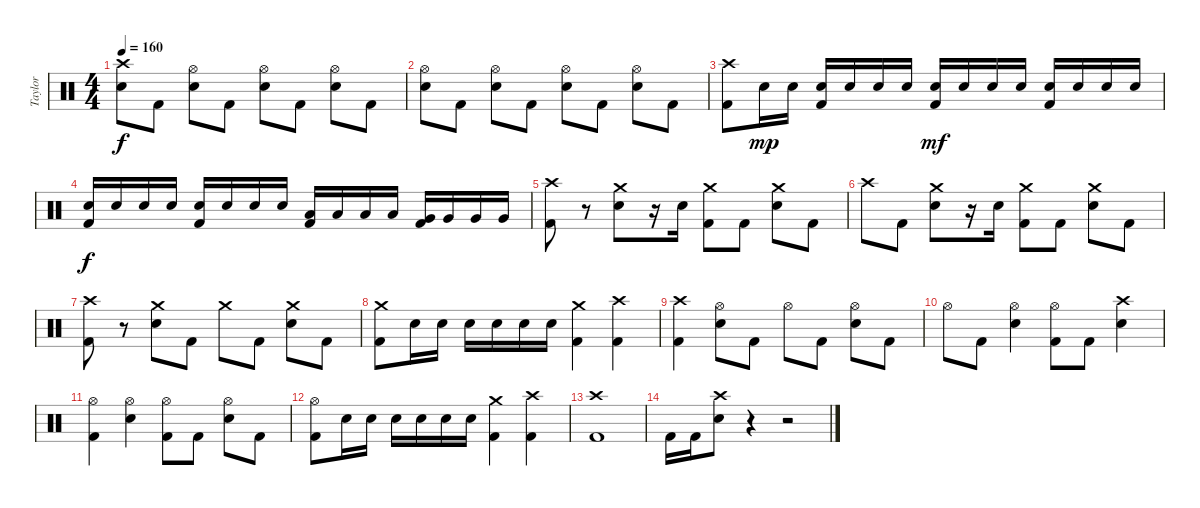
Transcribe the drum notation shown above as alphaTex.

\track ("Taylor" "Taylor") {instrument percussion}
\staff {score}
\articulation defaults
\ts (4 4)
\tempo 160
\clef neutral
\ks c
("Crash high (hit)" "Electric Snare (hit)").8{dy f} "Kick (hit) 2".8 ("Hi-Hat (open)" "Electric Snare (hit)").8 "Kick (hit) 2".8 ("Hi-Hat (open)" "Electric Snare (hit)").8 "Kick (hit) 2".8 ("Hi-Hat (open)" "Electric Snare (hit)").8 "Kick (hit) 2".8 |
("Hi-Hat (open)" "Electric Snare (hit)").8 "Kick (hit) 2".8 ("Hi-Hat (open)" "Electric Snare (hit)").8 "Kick (hit) 2".8 ("Hi-Hat (open)" "Electric Snare (hit)").8 "Kick (hit) 2".8 ("Hi-Hat (open)" "Electric Snare (hit)").8 "Kick (hit) 2".8 |
("Crash high (hit)" "Kick (hit) 2").8 "Electric Snare (hit)".16{dy mp} "Electric Snare (hit)".16 ("Electric Snare (hit)" "Kick (hit) 2").16 "Electric Snare (hit)".16 "Electric Snare (hit)".16 "Electric Snare (hit)".16 ("Electric Snare (hit)" "Kick (hit) 2").16{dy mf} "Electric Snare (hit)".16 "Electric Snare (hit)".16 "Electric Snare (hit)".16 ("Electric Snare (hit)" "Kick (hit) 2").16 "Electric Snare (hit)".16 "Electric Snare (hit)".16 "Electric Snare (hit)".16 |
("Electric Snare (hit)" "Kick (hit) 2").16{dy f} "Electric Snare (hit)".16 "Electric Snare (hit)".16 "Electric Snare (hit)".16 ("Electric Snare (hit)" "Kick (hit) 2").16 "Electric Snare (hit)".16 "Electric Snare (hit)".16 "Electric Snare (hit)".16 ("Low Tom (hit)" "Kick (hit) 2").16 "Low Tom (hit)".16 "Low Tom (hit)".16 "Low Tom (hit)".16 ("Very Low Tom (hit)" "Kick (hit) 2").16 "Very Low Tom (hit)".16 "Very Low Tom (hit)".16 "Very Low Tom (hit)".16 |
("Crash high (hit)" "Kick (hit) 2").8 r.8 ("Crash medium (hit)" "Electric Snare (hit)").8 r.16 "Electric Snare (hit)".16 ("Crash medium (hit)" "Kick (hit) 2").8 "Kick (hit) 2".8 ("Crash medium (hit)" "Electric Snare (hit)").8 "Kick (hit) 2".8 |
"Crash high (hit)".8 "Kick (hit) 2".8 ("Crash medium (hit)" "Electric Snare (hit)").8 r.16 "Electric Snare (hit)".16 ("Crash medium (hit)" "Kick (hit) 2").8 "Kick (hit) 2".8 ("Crash medium (hit)" "Electric Snare (hit)").8 "Kick (hit) 2".8 |
("Crash high (hit)" "Kick (hit) 2").8 r.8 ("Crash medium (hit)" "Electric Snare (hit)").8 "Kick (hit) 2".8 "Crash medium (hit)".8 "Kick (hit) 2".8 ("Crash medium (hit)" "Electric Snare (hit)").8 "Kick (hit) 2".8 |
("Crash medium (hit)" "Kick (hit) 2").8 "Electric Snare (hit)".16 "Electric Snare (hit)".16 "Electric Snare (hit)".16 "Electric Snare (hit)".16 "Electric Snare (hit)".16 "Electric Snare (hit)".16 ("Crash medium (hit)" "Kick (hit) 2").4 ("Crash high (hit)" "Kick (hit) 2").4 |
("Crash high (hit)" "Kick (hit) 2").4 ("Hi-Hat (open)" "Electric Snare (hit)").8 "Kick (hit) 2".8 "Hi-Hat (open)".8 "Kick (hit) 2".8 ("Hi-Hat (open)" "Electric Snare (hit)").8 "Kick (hit) 2".8 |
"Hi-Hat (open)".8 "Kick (hit) 2".8 ("Hi-Hat (open)" "Electric Snare (hit)").4 ("Hi-Hat (open)" "Kick (hit) 2").8 "Kick (hit) 2".8 ("Crash high (hit)" "Electric Snare (hit)").4 |
("Hi-Hat (open)" "Kick (hit) 2").4 ("Hi-Hat (open)" "Electric Snare (hit)").4 ("Hi-Hat (open)" "Kick (hit) 2").8 "Kick (hit) 2".8 ("Hi-Hat (open)" "Electric Snare (hit)").8 "Kick (hit) 2".8 |
("Hi-Hat (open)" "Kick (hit) 2").8 "Electric Snare (hit)".16 "Electric Snare (hit)".16 "Electric Snare (hit)".16 "Electric Snare (hit)".16 "Electric Snare (hit)".16 "Electric Snare (hit)".16 ("Crash medium (hit)" "Kick (hit) 2").4 ("Crash high (hit)" "Kick (hit) 2").4 |
("Crash high (hit)" "Kick (hit) 2").1 |
"Kick (hit) 2".16 "Kick (hit) 2".16 ("Crash high (hit)" "Electric Snare (hit)").8 r.4 r.2
